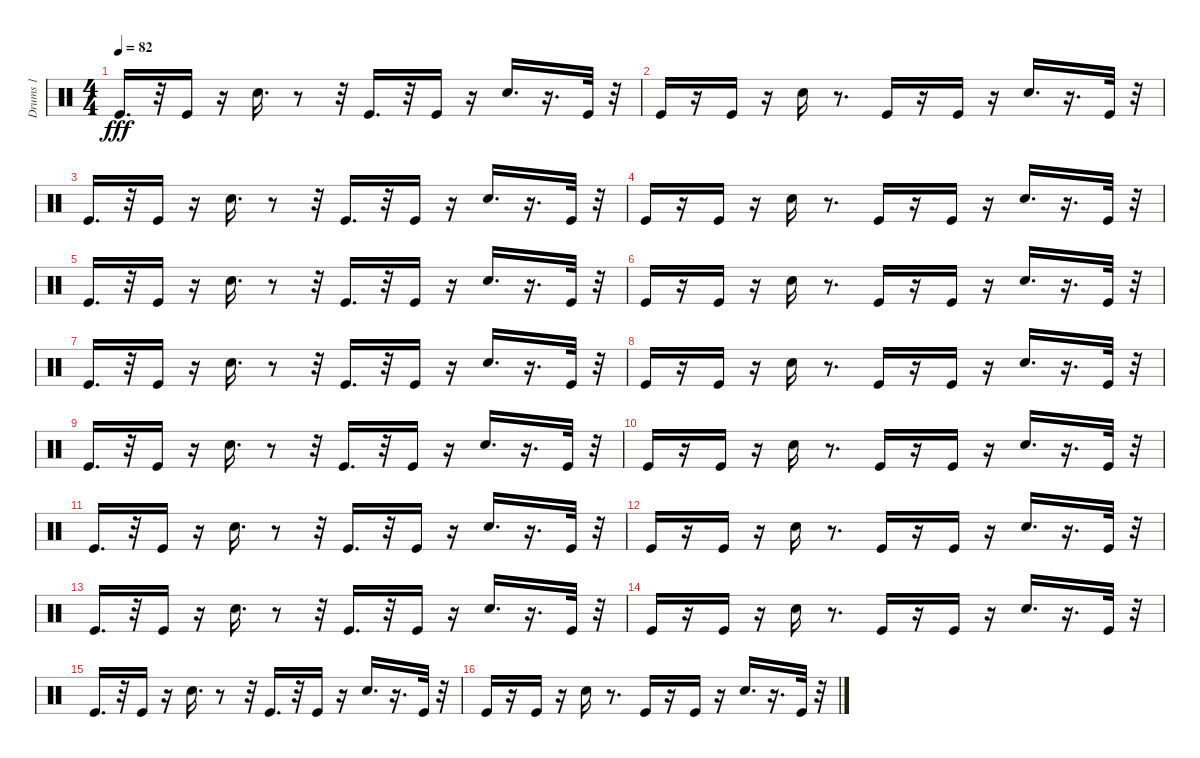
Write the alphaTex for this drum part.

\track ("Drums 1" "Drums 1") {instrument percussion}
\staff {score}
\articulation defaults
\ts (4 4)
\tempo 82
\clef neutral
\ks c "Kick (hit)".16{d dy fff}
r.32 "Kick (hit)".16 r.16 "Electric Snare (hit)".16{d} r.8 r.32 "Kick (hit)".16{d} r.32 "Kick (hit)".16 r.16 "Electric Snare (hit)".16{d} r.16{d} "Kick (hit)".32 r.32 |
"Kick (hit)".16 r.16 "Kick (hit)".16 r.16 "Electric Snare (hit)".16 r.8{d} "Kick (hit)".16 r.16 "Kick (hit)".16 r.16 "Electric Snare (hit)".16{d} r.16{d} "Kick (hit)".32 r.32 |
"Kick (hit)".16{d} r.32 "Kick (hit)".16 r.16 "Electric Snare (hit)".16{d} r.8 r.32 "Kick (hit)".16{d} r.32 "Kick (hit)".16 r.16 "Electric Snare (hit)".16{d} r.16{d} "Kick (hit)".32 r.32 |
"Kick (hit)".16 r.16 "Kick (hit)".16 r.16 "Electric Snare (hit)".16 r.8{d} "Kick (hit)".16 r.16 "Kick (hit)".16 r.16 "Electric Snare (hit)".16{d} r.16{d} "Kick (hit)".32 r.32 |
"Kick (hit)".16{d} r.32 "Kick (hit)".16 r.16 "Electric Snare (hit)".16{d} r.8 r.32 "Kick (hit)".16{d} r.32 "Kick (hit)".16 r.16 "Electric Snare (hit)".16{d} r.16{d} "Kick (hit)".32 r.32 |
"Kick (hit)".16 r.16 "Kick (hit)".16 r.16 "Electric Snare (hit)".16 r.8{d} "Kick (hit)".16 r.16 "Kick (hit)".16 r.16 "Electric Snare (hit)".16{d} r.16{d} "Kick (hit)".32 r.32 |
"Kick (hit)".16{d} r.32 "Kick (hit)".16 r.16 "Electric Snare (hit)".16{d} r.8 r.32 "Kick (hit)".16{d} r.32 "Kick (hit)".16 r.16 "Electric Snare (hit)".16{d} r.16{d} "Kick (hit)".32 r.32 |
"Kick (hit)".16 r.16 "Kick (hit)".16 r.16 "Electric Snare (hit)".16 r.8{d} "Kick (hit)".16 r.16 "Kick (hit)".16 r.16 "Electric Snare (hit)".16{d} r.16{d} "Kick (hit)".32 r.32 |
"Kick (hit)".16{d} r.32 "Kick (hit)".16 r.16 "Electric Snare (hit)".16{d} r.8 r.32 "Kick (hit)".16{d} r.32 "Kick (hit)".16 r.16 "Electric Snare (hit)".16{d} r.16{d} "Kick (hit)".32 r.32 |
"Kick (hit)".16 r.16 "Kick (hit)".16 r.16 "Electric Snare (hit)".16 r.8{d} "Kick (hit)".16 r.16 "Kick (hit)".16 r.16 "Electric Snare (hit)".16{d} r.16{d} "Kick (hit)".32 r.32 |
"Kick (hit)".16{d} r.32 "Kick (hit)".16 r.16 "Electric Snare (hit)".16{d} r.8 r.32 "Kick (hit)".16{d} r.32 "Kick (hit)".16 r.16 "Electric Snare (hit)".16{d} r.16{d} "Kick (hit)".32 r.32 |
"Kick (hit)".16 r.16 "Kick (hit)".16 r.16 "Electric Snare (hit)".16 r.8{d} "Kick (hit)".16 r.16 "Kick (hit)".16 r.16 "Electric Snare (hit)".16{d} r.16{d} "Kick (hit)".32 r.32 |
"Kick (hit)".16{d} r.32 "Kick (hit)".16 r.16 "Electric Snare (hit)".16{d} r.8 r.32 "Kick (hit)".16{d} r.32 "Kick (hit)".16 r.16 "Electric Snare (hit)".16{d} r.16{d} "Kick (hit)".32 r.32 |
"Kick (hit)".16 r.16 "Kick (hit)".16 r.16 "Electric Snare (hit)".16 r.8{d} "Kick (hit)".16 r.16 "Kick (hit)".16 r.16 "Electric Snare (hit)".16{d} r.16{d} "Kick (hit)".32 r.32 |
"Kick (hit)".16{d} r.32 "Kick (hit)".16 r.16 "Electric Snare (hit)".16{d} r.8 r.32 "Kick (hit)".16{d} r.32 "Kick (hit)".16 r.16 "Electric Snare (hit)".16{d} r.16{d} "Kick (hit)".32 r.32 |
"Kick (hit)".16 r.16 "Kick (hit)".16 r.16 "Electric Snare (hit)".16 r.8{d} "Kick (hit)".16 r.16 "Kick (hit)".16 r.16 "Electric Snare (hit)".16{d} r.16{d} "Kick (hit)".32 r.32
